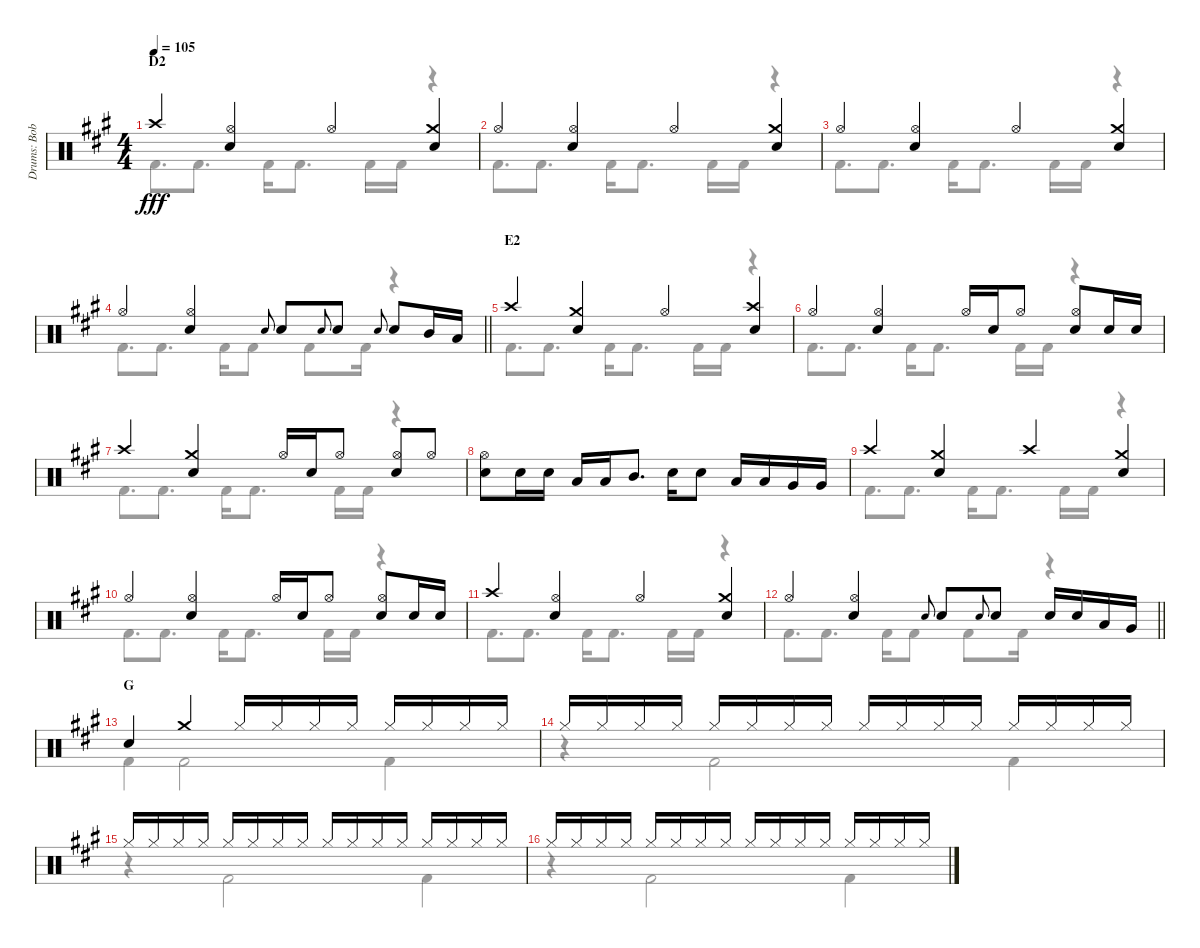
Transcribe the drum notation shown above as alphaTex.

\track ("Drums: Bobby" "Drums: Bob") {instrument percussion}
\staff {score}
\articulation defaults
\voice
\ts (4 4)
\section ("" "D2")
\tempo 105
\clef neutral
\ks a "Crash high (hit)".4{dy fff}
("Hi-Hat (open)" "Snare (hit) 2").4 "Hi-Hat (open)".4 ("Crash medium (hit)" "Snare (hit) 2").4 |
"Hi-Hat (open)".4 ("Hi-Hat (open)" "Snare (hit) 2").4 "Hi-Hat (open)".4 ("Crash medium (hit)" "Snare (hit) 2").4 |
"Hi-Hat (open)".4 ("Hi-Hat (open)" "Snare (hit) 2").4 "Hi-Hat (open)".4 ("Crash medium (hit)" "Snare (hit) 2").4 |
\barLineRight lightlight "Hi-Hat (open)".4
("Hi-Hat (open)" "Snare (hit) 2").4 "Electric Snare (hit)".8{gr onbeat} "Snare (hit) 2".8 "Electric Snare (hit)".8{gr onbeat} "Snare (hit) 2".8 "Electric Snare (hit)".8{gr onbeat} "Snare (hit) 2".8 "Mid Tom (hit)".16 "Low Tom (hit)".16 |
\section ("" "E2")
"Crash high (hit)".4 ("Crash medium (hit)" "Snare (hit) 2").4 "Hi-Hat (open)".4 ("Crash high (hit)" "Snare (hit) 2").4 |
"Hi-Hat (open)".4 ("Hi-Hat (open)" "Snare (hit) 2").4 "Hi-Hat (open)".16 "Snare (hit) 2".16 "Hi-Hat (open)".8 ("Hi-Hat (open)" "Snare (hit) 2").8 "Electric Snare (hit)".16 "Electric Snare (hit)".16 |
"Crash high (hit)".4 ("Crash medium (hit)" "Snare (hit) 2").4 "Hi-Hat (open)".16 "Snare (hit) 2".16 "Hi-Hat (open)".8 ("Hi-Hat (open)" "Snare (hit) 2").8 "Hi-Hat (open)".8 |
("Hi-Hat (open)" "Snare (hit) 2").8 "Electric Snare (hit)".16 "Electric Snare (hit)".16 "Low Tom (hit)".16 "Low Tom (hit)".16 "Mid Tom (hit)".8{d} "Electric Snare (hit)".16 "Electric Snare (hit)".8 "Low Tom (hit)".16 "Low Tom (hit)".16 "Very Low Tom (hit)".16 "Very Low Tom (hit)".16 |
"Crash high (hit)".4 ("Crash medium (hit)" "Snare (hit) 2").4 "Crash high (hit)".4 ("Crash medium (hit)" "Snare (hit) 2").4 |
"Hi-Hat (open)".4 ("Hi-Hat (open)" "Snare (hit) 2").4 "Hi-Hat (open)".16 "Snare (hit) 2".16 "Hi-Hat (open)".8 ("Hi-Hat (open)" "Snare (hit) 2").8 "Electric Snare (hit)".16 "Electric Snare (hit)".16 |
"Crash high (hit)".4 ("Hi-Hat (open)" "Snare (hit) 2").4 "Hi-Hat (open)".4 ("Crash medium (hit)" "Snare (hit) 2").4 |
\barLineRight lightlight "Hi-Hat (open)".4
("Hi-Hat (open)" "Snare (hit) 2").4 "Electric Snare (hit)".8{gr onbeat} "Snare (hit) 2".8 "Electric Snare (hit)".8{gr onbeat} "Snare (hit) 2".8 "Electric Snare (hit)".16 "Electric Snare (hit)".16 "Low Tom (hit)".16 "Very Low Tom (hit)".16 |
\section ("" "G")
"Snare (hit) 2".4 "Crash medium (hit)".4 "Hi-Hat (closed)".16 "Hi-Hat (closed)".16 "Hi-Hat (closed)".16 "Hi-Hat (closed)".16 "Hi-Hat (closed)".16 "Hi-Hat (closed)".16 "Hi-Hat (closed)".16 "Hi-Hat (closed)".16 |
"Hi-Hat (closed)".16 "Hi-Hat (closed)".16 "Hi-Hat (closed)".16 "Hi-Hat (closed)".16 "Hi-Hat (closed)".16 "Hi-Hat (closed)".16 "Hi-Hat (closed)".16 "Hi-Hat (closed)".16 "Hi-Hat (closed)".16 "Hi-Hat (closed)".16 "Hi-Hat (closed)".16 "Hi-Hat (closed)".16 "Hi-Hat (closed)".16 "Hi-Hat (closed)".16 "Hi-Hat (closed)".16 "Hi-Hat (closed)".16 |
"Hi-Hat (closed)".16 "Hi-Hat (closed)".16 "Hi-Hat (closed)".16 "Hi-Hat (closed)".16 "Hi-Hat (closed)".16 "Hi-Hat (closed)".16 "Hi-Hat (closed)".16 "Hi-Hat (closed)".16 "Hi-Hat (closed)".16 "Hi-Hat (closed)".16 "Hi-Hat (closed)".16 "Hi-Hat (closed)".16 "Hi-Hat (closed)".16 "Hi-Hat (closed)".16 "Hi-Hat (closed)".16 "Hi-Hat (closed)".16 |
"Hi-Hat (closed)".16 "Hi-Hat (closed)".16 "Hi-Hat (closed)".16 "Hi-Hat (closed)".16 "Hi-Hat (closed)".16 "Hi-Hat (closed)".16 "Hi-Hat (closed)".16 "Hi-Hat (closed)".16 "Hi-Hat (closed)".16 "Hi-Hat (closed)".16 "Hi-Hat (closed)".16 "Hi-Hat (closed)".16 "Hi-Hat (closed)".16 "Hi-Hat (closed)".16 "Hi-Hat (closed)".16 "Hi-Hat (closed)".16
\voice
\clef neutral
\ottava regular
\simile none
\ks a "Kick (hit) 2".8{d dy fff} "Kick (hit) 2".8{d} "Kick (hit) 2".16 "Kick (hit) 2".8{d} "Kick (hit) 2".16 "Kick (hit) 2".16
r.4 |
"Kick (hit) 2".8{d} "Kick (hit) 2".8{d} "Kick (hit) 2".16 "Kick (hit) 2".8{d} "Kick (hit) 2".16 "Kick (hit) 2".16 r.4 |
"Kick (hit) 2".8{d} "Kick (hit) 2".8{d} "Kick (hit) 2".16 "Kick (hit) 2".8{d} "Kick (hit) 2".16 "Kick (hit) 2".16 r.4 |
\barLineRight lightlight "Kick (hit) 2".8{d} "Kick (hit) 2".8{d} "Kick (hit) 2".16 "Kick (hit) 2".8 "Kick (hit) 2".8 "Kick (hit) 2".16
r.4 |
"Kick (hit) 2".8{d} "Kick (hit) 2".8{d} "Kick (hit) 2".16 "Kick (hit) 2".8{d} "Kick (hit) 2".16 "Kick (hit) 2".16 r.4 |
"Kick (hit) 2".8{d} "Kick (hit) 2".8{d} "Kick (hit) 2".16 "Kick (hit) 2".8{d} "Kick (hit) 2".16 "Kick (hit) 2".16 r.4 |
"Kick (hit) 2".8{d} "Kick (hit) 2".8{d} "Kick (hit) 2".16 "Kick (hit) 2".8{d} "Kick (hit) 2".16 "Kick (hit) 2".16 r.4 |
|
"Kick (hit) 2".8{d} "Kick (hit) 2".8{d} "Kick (hit) 2".16 "Kick (hit) 2".8{d} "Kick (hit) 2".16 "Kick (hit) 2".16 r.4 |
"Kick (hit) 2".8{d} "Kick (hit) 2".8{d} "Kick (hit) 2".16 "Kick (hit) 2".8{d} "Kick (hit) 2".16 "Kick (hit) 2".16 r.4 |
"Kick (hit) 2".8{d} "Kick (hit) 2".8{d} "Kick (hit) 2".16 "Kick (hit) 2".8{d} "Kick (hit) 2".16 "Kick (hit) 2".16 r.4 |
\barLineRight lightlight "Kick (hit) 2".8{d} "Kick (hit) 2".8{d} "Kick (hit) 2".16 "Kick (hit) 2".8 "Kick (hit) 2".8 "Kick (hit) 2".16
r.4 |
"Kick (hit) 2".4 "Kick (hit) 2".2 "Kick (hit) 2".4 |
r.4 "Kick (hit) 2".2 "Kick (hit) 2".4 |
r.4 "Kick (hit) 2".2 "Kick (hit) 2".4 |
r.4 "Kick (hit) 2".2 "Kick (hit) 2".4
